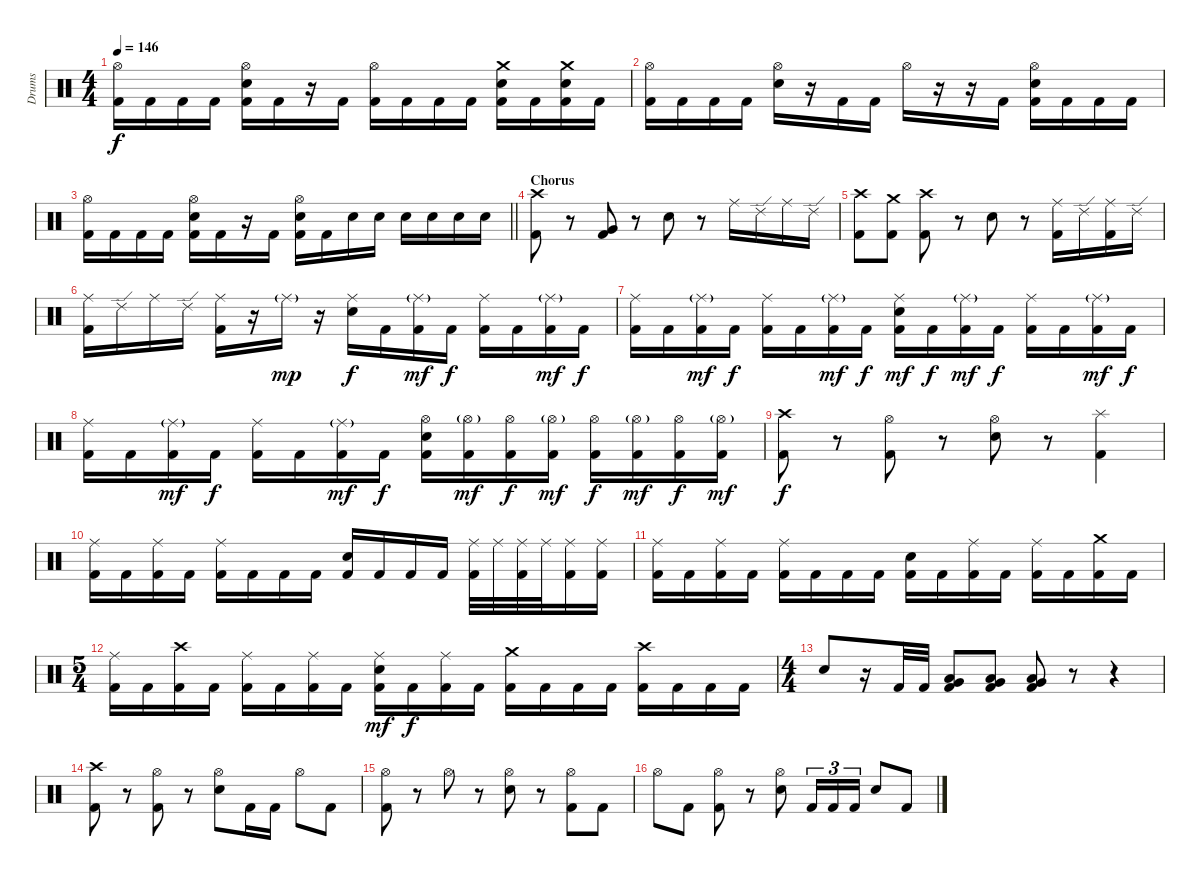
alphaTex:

\track ("Drums" "Drums") {instrument percussion}
\staff {score}
\articulation defaults
\ts (4 4)
\tempo 146
\clef neutral
\ks c
("Hi-Hat (open)" "Kick (hit) 2").16{dy f} "Kick (hit) 2".16 "Kick (hit) 2".16 "Kick (hit) 2".16 ("Hi-Hat (open)" "Electric Snare (hit)" "Kick (hit) 2").16 "Kick (hit) 2".16 r.16 "Kick (hit) 2".16 ("Hi-Hat (open)" "Kick (hit) 2").16 "Kick (hit) 2".16 "Kick (hit) 2".16 "Kick (hit) 2".16 ("Crash medium (hit)" "Electric Snare (hit)" "Kick (hit) 2").16 "Kick (hit) 2".16 ("Crash medium (hit)" "Electric Snare (hit)" "Kick (hit) 2").16 "Kick (hit) 2".16 |
("Hi-Hat (open)" "Kick (hit) 2").16 "Kick (hit) 2".16 "Kick (hit) 2".16 "Kick (hit) 2".16 ("Hi-Hat (open)" "Electric Snare (hit)").16 r.16 "Kick (hit) 2".16 "Kick (hit) 2".16 "Hi-Hat (open)".16 r.16 r.16 "Kick (hit) 2".16 ("Hi-Hat (open)" "Electric Snare (hit)" "Kick (hit) 2").16 "Kick (hit) 2".16 "Kick (hit) 2".16 "Kick (hit) 2".16 |
\barLineRight lightlight
("Hi-Hat (open)" "Kick (hit) 2").16 "Kick (hit) 2".16 "Kick (hit) 2".16 "Kick (hit) 2".16 ("Hi-Hat (open)" "Electric Snare (hit)" "Kick (hit) 2").16 "Kick (hit) 2".16 r.16 "Kick (hit) 2".16 ("Hi-Hat (open)" "Electric Snare (hit)" "Kick (hit) 2").16 "Kick (hit) 2".16 "Electric Snare (hit)".16 "Electric Snare (hit)".16 "Electric Snare (hit)".16 "Electric Snare (hit)".16 "Electric Snare (hit)".16 "Electric Snare (hit)".16 |
\section ("" "Chorus")
("Crash high (hit)" "Kick (hit) 2").8 r.8 ("Very Low Tom (hit)" "Kick (hit) 2").8 r.8 "Electric Snare (hit)".8 r.8 "Ride (middle)".16 "Ride (edge) 2".16 "Ride (middle)".16 "Ride (edge) 2".16 |
("Crash high (hit)" "Kick (hit) 2").8 ("Crash medium (hit)" "Kick (hit) 2").8 ("Crash high (hit)" "Kick (hit) 2").8 r.8 "Electric Snare (hit)".8 r.8 ("Ride (middle)" "Kick (hit) 2").16 "Ride (edge) 2".16 ("Ride (middle)" "Kick (hit) 2").16 "Ride (edge) 2".16 |
("Ride (middle)" "Kick (hit) 2").16 "Ride (edge) 2".16 "Ride (middle)".16 "Ride (edge) 2".16 ("Ride (middle)" "Kick (hit) 2").16 r.16 "Ride (middle)"{g}.16{dy mp} r.16 ("Ride (middle)" "Electric Snare (hit)").16{dy f} "Kick (hit) 2".16 ("Ride (middle)"{g} "Kick (hit) 2").16{dy mf} "Kick (hit) 2".16{dy f} ("Ride (middle)" "Kick (hit) 2").16 "Kick (hit) 2".16 ("Ride (middle)"{g} "Kick (hit) 2").16{dy mf} "Kick (hit) 2".16{dy f} |
("Ride (middle)" "Kick (hit) 2").16 "Kick (hit) 2".16 ("Ride (middle)"{g} "Kick (hit) 2").16{dy mf} "Kick (hit) 2".16{dy f} ("Ride (middle)" "Kick (hit) 2").16 "Kick (hit) 2".16 ("Ride (middle)"{g} "Kick (hit) 2").16{dy mf} "Kick (hit) 2".16{dy f} ("Ride (middle)" "Electric Snare (hit)" "Kick (hit) 2").16{dy mf} "Kick (hit) 2".16{dy f} ("Ride (middle)"{g} "Kick (hit) 2").16{dy mf} "Kick (hit) 2".16{dy f} ("Ride (middle)" "Kick (hit) 2").16 "Kick (hit) 2".16 ("Ride (middle)"{g} "Kick (hit) 2").16{dy mf} "Kick (hit) 2".16{dy f} |
("Ride (middle)" "Kick (hit) 2").16 "Kick (hit) 2".16 ("Ride (middle)"{g} "Kick (hit) 2").16{dy mf} "Kick (hit) 2".16{dy f} ("Ride (middle)" "Kick (hit) 2").16 "Kick (hit) 2".16 ("Ride (middle)"{g} "Kick (hit) 2").16{dy mf} "Kick (hit) 2".16{dy f} ("Hi-Hat (open)" "Electric Snare (hit)" "Kick (hit) 2").16 ("Hi-Hat (open)"{g} "Kick (hit) 2").16{dy mf} ("Hi-Hat (open)" "Kick (hit) 2").16{dy f} ("Hi-Hat (open)"{g} "Kick (hit) 2").16{dy mf} ("Hi-Hat (open)" "Kick (hit) 2").16{dy f} ("Hi-Hat (open)"{g} "Kick (hit) 2").16{dy mf} ("Hi-Hat (open)" "Kick (hit) 2").16{dy f} ("Hi-Hat (open)"{g} "Kick (hit) 2").16{dy mf} |
("Crash high (hit)" "Kick (hit) 2").8{dy f} r.8 ("Hi-Hat (open)" "Kick (hit) 2").8 r.8 ("Hi-Hat (open)" "Electric Snare (hit)").8 r.8 ("Splash (hit)" "Kick (hit) 2").4 |
("Ride (middle)" "Kick (hit) 2").16 "Kick (hit) 2".16 ("Ride (middle)" "Kick (hit) 2").16 "Kick (hit) 2".16 ("Ride (middle)" "Kick (hit) 2").16 "Kick (hit) 2".16 "Kick (hit) 2".16 "Kick (hit) 2".16 ("Electric Snare (hit)" "Kick (hit) 2").16 "Kick (hit) 2".16 "Kick (hit) 2".16 "Kick (hit) 2".16 ("Ride (middle)" "Kick (hit) 2").32 "Ride (middle)".32 ("Ride (middle)" "Kick (hit) 2").32 "Ride (middle)".32 ("Ride (middle)" "Kick (hit) 2").16 ("Ride (middle)" "Kick (hit) 2").16 |
("Ride (middle)" "Kick (hit) 2").16 "Kick (hit) 2".16 ("Ride (middle)" "Kick (hit) 2").16 "Kick (hit) 2".16 ("Ride (middle)" "Kick (hit) 2").16 "Kick (hit) 2".16 "Kick (hit) 2".16 "Kick (hit) 2".16 ("Electric Snare (hit)" "Kick (hit) 2").16 "Kick (hit) 2".16 ("Ride (middle)" "Kick (hit) 2").16 "Kick (hit) 2".16 ("Ride (middle)" "Kick (hit) 2").16 "Kick (hit) 2".16 ("Crash medium (hit)" "Kick (hit) 2").16 "Kick (hit) 2".16 |
\ts (5 4)
("Ride (middle)" "Kick (hit) 2").16 "Kick (hit) 2".16 ("Crash high (hit)" "Kick (hit) 2").16 "Kick (hit) 2".16 ("Ride (middle)" "Kick (hit) 2").16 "Kick (hit) 2".16 ("Ride (middle)" "Kick (hit) 2").16 "Kick (hit) 2".16 ("Ride (middle)" "Electric Snare (hit)" "Kick (hit) 2").16{dy mf} "Kick (hit) 2".16{dy f} ("Ride (middle)" "Kick (hit) 2").16 "Kick (hit) 2".16 ("Crash medium (hit)" "Kick (hit) 2").16 "Kick (hit) 2".16 "Kick (hit) 2".16 "Kick (hit) 2".16 ("Crash high (hit)" "Kick (hit) 2").16 "Kick (hit) 2".16 "Kick (hit) 2".16 "Kick (hit) 2".16 |
\ts (4 4)
"Electric Snare (hit)".8 r.16 "Kick (hit) 2".32 "Kick (hit) 2".32 ("Very Low Tom (hit)" "Low Tom (hit)" "Kick (hit) 2").8 ("Very Low Tom (hit)" "Low Tom (hit)" "Kick (hit) 2").8 ("Very Low Tom (hit)" "Low Tom (hit)" "Kick (hit) 2").8 r.8 r.4 |
("Crash high (hit)" "Kick (hit) 2").8 r.8 ("Hi-Hat (open)" "Kick (hit) 2").8 r.8 ("Hi-Hat (open)" "Electric Snare (hit)").8 "Kick (hit) 2".16 "Kick (hit) 2".16 "Hi-Hat (open)".8 "Kick (hit) 2".8 |
("Hi-Hat (open)" "Kick (hit) 2").8 r.8 "Hi-Hat (open)".8 r.8 ("Hi-Hat (open)" "Electric Snare (hit)").8 r.8 ("Hi-Hat (open)" "Kick (hit) 2").8 "Kick (hit) 2".8 |
"Hi-Hat (open)".8 "Kick (hit) 2".8 ("Hi-Hat (open)" "Kick (hit) 2").8 r.8 ("Hi-Hat (open)" "Electric Snare (hit)").8 "Kick (hit) 2".16{tu (3 2)} "Kick (hit) 2".16{tu (3 2)} "Kick (hit) 2".16{tu (3 2)} "Electric Snare (hit)".8 "Kick (hit) 2".8
